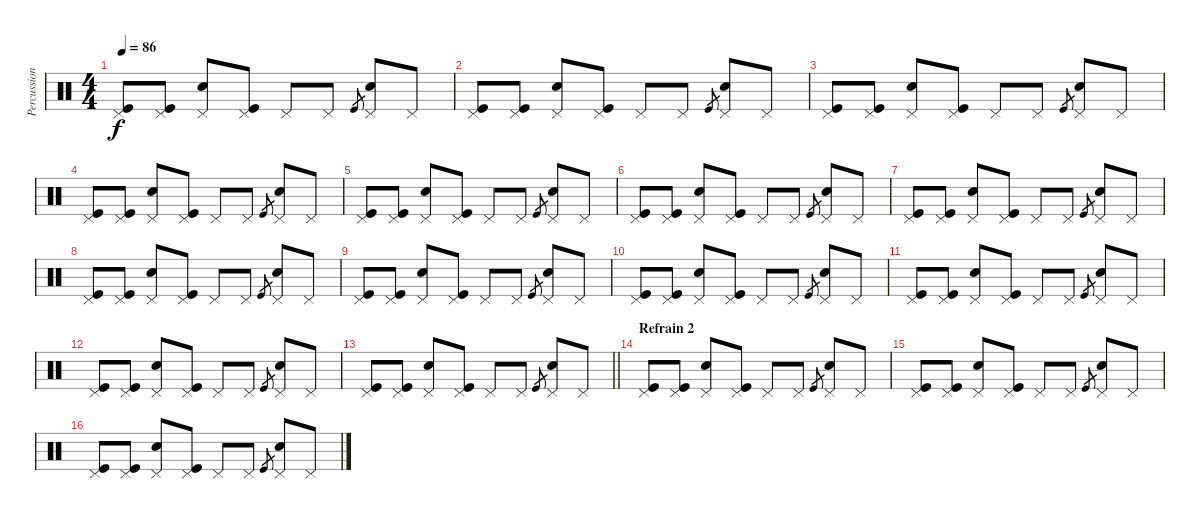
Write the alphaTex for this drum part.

\track ("Percussions" "Percussion") {instrument percussion}
\staff {score}
\articulation defaults
\ts (4 4)
\tempo 86
\clef neutral
\ks c
("Pedal Hi-Hat (hit)" "Kick (hit)").8{dy f} ("Pedal Hi-Hat (hit)" "Kick (hit)").8 ("Pedal Hi-Hat (hit)" "Electric Snare (hit)").8 ("Pedal Hi-Hat (hit)" "Kick (hit)").8 "Pedal Hi-Hat (hit)".8 "Pedal Hi-Hat (hit)".8 "Kick (hit)".8{gr} ("Pedal Hi-Hat (hit)" "Electric Snare (hit)").8 "Pedal Hi-Hat (hit)".8 |
("Pedal Hi-Hat (hit)" "Kick (hit)").8 ("Pedal Hi-Hat (hit)" "Kick (hit)").8 ("Pedal Hi-Hat (hit)" "Electric Snare (hit)").8 ("Pedal Hi-Hat (hit)" "Kick (hit)").8 "Pedal Hi-Hat (hit)".8 "Pedal Hi-Hat (hit)".8 "Kick (hit)".8{gr} ("Pedal Hi-Hat (hit)" "Electric Snare (hit)").8 "Pedal Hi-Hat (hit)".8 |
("Pedal Hi-Hat (hit)" "Kick (hit)").8 ("Pedal Hi-Hat (hit)" "Kick (hit)").8 ("Pedal Hi-Hat (hit)" "Electric Snare (hit)").8 ("Pedal Hi-Hat (hit)" "Kick (hit)").8 "Pedal Hi-Hat (hit)".8 "Pedal Hi-Hat (hit)".8 "Kick (hit)".8{gr} ("Pedal Hi-Hat (hit)" "Electric Snare (hit)").8 "Pedal Hi-Hat (hit)".8 |
("Pedal Hi-Hat (hit)" "Kick (hit)").8 ("Pedal Hi-Hat (hit)" "Kick (hit)").8 ("Pedal Hi-Hat (hit)" "Electric Snare (hit)").8 ("Pedal Hi-Hat (hit)" "Kick (hit)").8 "Pedal Hi-Hat (hit)".8 "Pedal Hi-Hat (hit)".8 "Kick (hit)".8{gr} ("Pedal Hi-Hat (hit)" "Electric Snare (hit)").8 "Pedal Hi-Hat (hit)".8 |
("Pedal Hi-Hat (hit)" "Kick (hit)").8 ("Pedal Hi-Hat (hit)" "Kick (hit)").8 ("Pedal Hi-Hat (hit)" "Electric Snare (hit)").8 ("Pedal Hi-Hat (hit)" "Kick (hit)").8 "Pedal Hi-Hat (hit)".8 "Pedal Hi-Hat (hit)".8 "Kick (hit)".8{gr} ("Pedal Hi-Hat (hit)" "Electric Snare (hit)").8 "Pedal Hi-Hat (hit)".8 |
("Pedal Hi-Hat (hit)" "Kick (hit)").8 ("Pedal Hi-Hat (hit)" "Kick (hit)").8 ("Pedal Hi-Hat (hit)" "Electric Snare (hit)").8 ("Pedal Hi-Hat (hit)" "Kick (hit)").8 "Pedal Hi-Hat (hit)".8 "Pedal Hi-Hat (hit)".8 "Kick (hit)".8{gr} ("Pedal Hi-Hat (hit)" "Electric Snare (hit)").8 "Pedal Hi-Hat (hit)".8 |
("Pedal Hi-Hat (hit)" "Kick (hit)").8 ("Pedal Hi-Hat (hit)" "Kick (hit)").8 ("Pedal Hi-Hat (hit)" "Electric Snare (hit)").8 ("Pedal Hi-Hat (hit)" "Kick (hit)").8 "Pedal Hi-Hat (hit)".8 "Pedal Hi-Hat (hit)".8 "Kick (hit)".8{gr} ("Pedal Hi-Hat (hit)" "Electric Snare (hit)").8 "Pedal Hi-Hat (hit)".8 |
("Pedal Hi-Hat (hit)" "Kick (hit)").8 ("Pedal Hi-Hat (hit)" "Kick (hit)").8 ("Pedal Hi-Hat (hit)" "Electric Snare (hit)").8 ("Pedal Hi-Hat (hit)" "Kick (hit)").8 "Pedal Hi-Hat (hit)".8 "Pedal Hi-Hat (hit)".8 "Kick (hit)".8{gr} ("Pedal Hi-Hat (hit)" "Electric Snare (hit)").8 "Pedal Hi-Hat (hit)".8 |
("Pedal Hi-Hat (hit)" "Kick (hit)").8 ("Pedal Hi-Hat (hit)" "Kick (hit)").8 ("Pedal Hi-Hat (hit)" "Electric Snare (hit)").8 ("Pedal Hi-Hat (hit)" "Kick (hit)").8 "Pedal Hi-Hat (hit)".8 "Pedal Hi-Hat (hit)".8 "Kick (hit)".8{gr} ("Pedal Hi-Hat (hit)" "Electric Snare (hit)").8 "Pedal Hi-Hat (hit)".8 |
("Pedal Hi-Hat (hit)" "Kick (hit)").8 ("Pedal Hi-Hat (hit)" "Kick (hit)").8 ("Pedal Hi-Hat (hit)" "Electric Snare (hit)").8 ("Pedal Hi-Hat (hit)" "Kick (hit)").8 "Pedal Hi-Hat (hit)".8 "Pedal Hi-Hat (hit)".8 "Kick (hit)".8{gr} ("Pedal Hi-Hat (hit)" "Electric Snare (hit)").8 "Pedal Hi-Hat (hit)".8 |
("Pedal Hi-Hat (hit)" "Kick (hit)").8 ("Pedal Hi-Hat (hit)" "Kick (hit)").8 ("Pedal Hi-Hat (hit)" "Electric Snare (hit)").8 ("Pedal Hi-Hat (hit)" "Kick (hit)").8 "Pedal Hi-Hat (hit)".8 "Pedal Hi-Hat (hit)".8 "Kick (hit)".8{gr} ("Pedal Hi-Hat (hit)" "Electric Snare (hit)").8 "Pedal Hi-Hat (hit)".8 |
("Pedal Hi-Hat (hit)" "Kick (hit)").8 ("Pedal Hi-Hat (hit)" "Kick (hit)").8 ("Pedal Hi-Hat (hit)" "Electric Snare (hit)").8 ("Pedal Hi-Hat (hit)" "Kick (hit)").8 "Pedal Hi-Hat (hit)".8 "Pedal Hi-Hat (hit)".8 "Kick (hit)".8{gr} ("Pedal Hi-Hat (hit)" "Electric Snare (hit)").8 "Pedal Hi-Hat (hit)".8 |
\barLineRight lightlight
("Pedal Hi-Hat (hit)" "Kick (hit)").8 ("Pedal Hi-Hat (hit)" "Kick (hit)").8 ("Pedal Hi-Hat (hit)" "Electric Snare (hit)").8 ("Pedal Hi-Hat (hit)" "Kick (hit)").8 "Pedal Hi-Hat (hit)".8 "Pedal Hi-Hat (hit)".8 "Kick (hit)".8{gr} ("Pedal Hi-Hat (hit)" "Electric Snare (hit)").8 "Pedal Hi-Hat (hit)".8 |
\section ("" "Refrain 2")
("Pedal Hi-Hat (hit)" "Kick (hit)").8 ("Pedal Hi-Hat (hit)" "Kick (hit)").8 ("Pedal Hi-Hat (hit)" "Electric Snare (hit)").8 ("Pedal Hi-Hat (hit)" "Kick (hit)").8 "Pedal Hi-Hat (hit)".8 "Pedal Hi-Hat (hit)".8 "Kick (hit)".8{gr} ("Pedal Hi-Hat (hit)" "Electric Snare (hit)").8 "Pedal Hi-Hat (hit)".8 |
("Pedal Hi-Hat (hit)" "Kick (hit)").8 ("Pedal Hi-Hat (hit)" "Kick (hit)").8 ("Pedal Hi-Hat (hit)" "Electric Snare (hit)").8 ("Pedal Hi-Hat (hit)" "Kick (hit)").8 "Pedal Hi-Hat (hit)".8 "Pedal Hi-Hat (hit)".8 "Kick (hit)".8{gr} ("Pedal Hi-Hat (hit)" "Electric Snare (hit)").8 "Pedal Hi-Hat (hit)".8 |
("Pedal Hi-Hat (hit)" "Kick (hit)").8 ("Pedal Hi-Hat (hit)" "Kick (hit)").8 ("Pedal Hi-Hat (hit)" "Electric Snare (hit)").8 ("Pedal Hi-Hat (hit)" "Kick (hit)").8 "Pedal Hi-Hat (hit)".8 "Pedal Hi-Hat (hit)".8 "Kick (hit)".8{gr} ("Pedal Hi-Hat (hit)" "Electric Snare (hit)").8 "Pedal Hi-Hat (hit)".8
